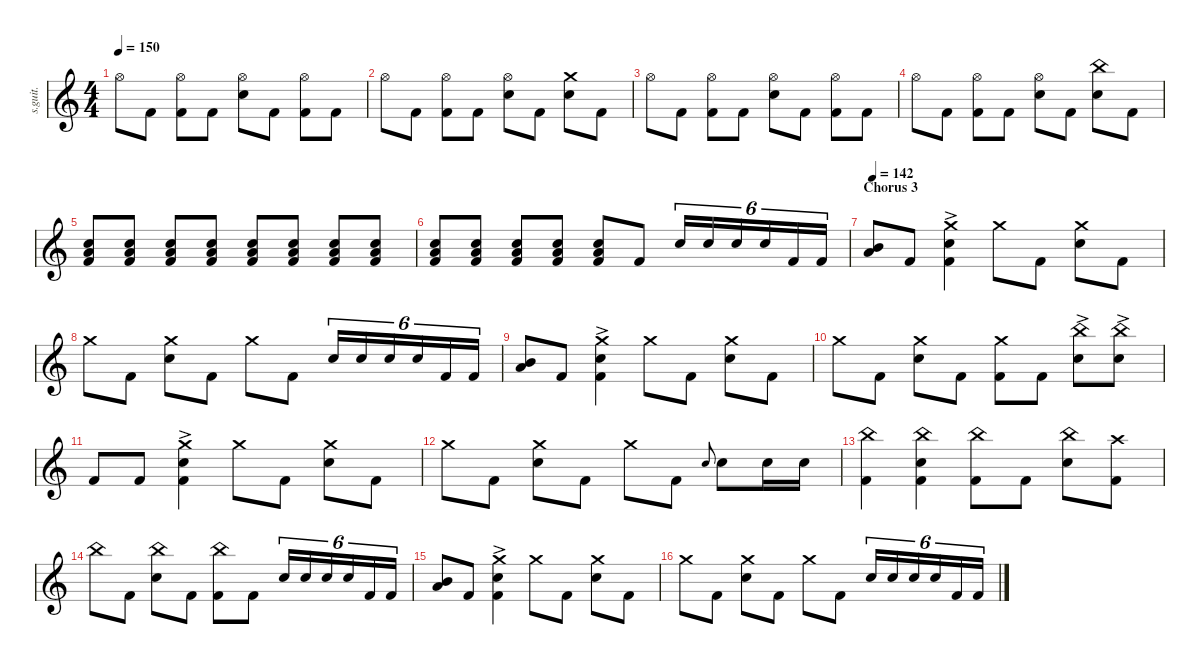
\defaultSystemsLayout 4
\hideDynamics
\bracketExtendMode nobrackets
\track ("Joey Jordison RIP" "s.guit.") {instrument percussion}
\staff {score}
\articulation defaults
\ts (4 4)
\tempo 150
\clef g2
\ks c "Hi-Hat (open)".8{dy fff} "Kick (hit) 2".8
("Hi-Hat (open)" "Kick (hit) 2").8 "Kick (hit) 2".8 ("Hi-Hat (open)" "Snare (hit) 2").8 "Kick (hit) 2".8 ("Hi-Hat (open)" "Kick (hit) 2").8 "Kick (hit) 2".8 |
"Hi-Hat (open)".8 "Kick (hit) 2".8 ("Hi-Hat (open)" "Kick (hit) 2").8 "Kick (hit) 2".8 ("Hi-Hat (open)" "Snare (hit) 2").8 "Kick (hit) 2".8 ("Crash medium (hit)" "Snare (hit) 2").8 "Kick (hit) 2".8 |
"Hi-Hat (open)".8 "Kick (hit) 2".8 ("Hi-Hat (open)" "Kick (hit) 2").8 "Kick (hit) 2".8 ("Hi-Hat (open)" "Snare (hit) 2").8 "Kick (hit) 2".8 ("Hi-Hat (open)" "Kick (hit) 2").8 "Kick (hit) 2".8 |
"Hi-Hat (open)".8 "Kick (hit) 2".8 ("Hi-Hat (open)" "Kick (hit) 2").8 "Kick (hit) 2".8 ("Hi-Hat (open)" "Snare (hit) 2").8 "Kick (hit) 2".8 ("China (hit)" "Snare (hit) 2").8 "Kick (hit) 2".8 |
("Kick (hit) 2" "Low Floor Tom (hit)" "Snare (hit) 2").8 ("Kick (hit) 2" "Low Floor Tom (hit)" "Snare (hit) 2").8 ("Kick (hit) 2" "Low Floor Tom (hit)" "Snare (hit) 2").8 ("Kick (hit) 2" "Low Floor Tom (hit)" "Snare (hit) 2").8 ("Kick (hit) 2" "Low Floor Tom (hit)" "Snare (hit) 2").8 ("Kick (hit) 2" "Low Floor Tom (hit)" "Snare (hit) 2").8 ("Kick (hit) 2" "Low Floor Tom (hit)" "Snare (hit) 2").8 ("Kick (hit) 2" "Low Floor Tom (hit)" "Snare (hit) 2").8 |
("Kick (hit) 2" "Low Floor Tom (hit)" "Snare (hit) 2").8 ("Kick (hit) 2" "Low Floor Tom (hit)" "Snare (hit) 2").8 ("Kick (hit) 2" "Low Floor Tom (hit)" "Snare (hit) 2").8 ("Kick (hit) 2" "Low Floor Tom (hit)" "Snare (hit) 2").8 ("Kick (hit) 2" "Low Floor Tom (hit)" "Snare (hit) 2").8 "Kick (hit) 2".8 "Snare (hit) 2".16{tu (6 4)} "Snare (hit) 2".16{tu (6 4)} "Snare (hit) 2".16{tu (6 4)} "Snare (hit) 2".16{tu (6 4)} "Kick (hit) 2".16{tu (6 4)} "Kick (hit) 2".16{tu (6 4)} |
\section ("" "Chorus 3")
\tempo 142
("Mid Tom (hit)" "Low Floor Tom (hit)").8 "Kick (hit) 2".8 ("Crash medium (hit)"{ac} "Kick (hit) 2"{ac} "Snare (hit) 2"{ac}).4 "Crash medium (hit)".8 "Kick (hit) 2".8 ("Crash medium (hit)" "Snare (hit) 2").8 "Kick (hit) 2".8 |
"Crash medium (hit)".8 "Kick (hit) 2".8 ("Crash medium (hit)" "Snare (hit) 2").8 "Kick (hit) 2".8 "Crash medium (hit)".8 "Kick (hit) 2".8 "Snare (hit) 2".16{tu (6 4)} "Snare (hit) 2".16{tu (6 4)} "Snare (hit) 2".16{tu (6 4)} "Snare (hit) 2".16{tu (6 4)} "Kick (hit) 2".16{tu (6 4)} "Kick (hit) 2".16{tu (6 4)} |
("Mid Tom (hit)" "Low Floor Tom (hit)").8 "Kick (hit) 2".8 ("Crash medium (hit)"{ac} "Kick (hit) 2"{ac} "Snare (hit) 2"{ac}).4 "Crash medium (hit)".8 "Kick (hit) 2".8 ("Crash medium (hit)" "Snare (hit) 2").8 "Kick (hit) 2".8 |
"Crash medium (hit)".8 "Kick (hit) 2".8 ("Crash medium (hit)" "Snare (hit) 2").8 "Kick (hit) 2".8 ("Crash medium (hit)" "Kick (hit) 2").8 "Kick (hit) 2".8 ("China (hit)"{ac} "Snare (hit) 2"{ac}).8 ("China (hit)"{ac} "Snare (hit) 2"{ac}).8 |
"Kick (hit) 2".8 "Kick (hit) 2".8 ("Crash medium (hit)"{ac} "Kick (hit) 2"{ac} "Snare (hit) 2"{ac}).4 "Crash medium (hit)".8 "Kick (hit) 2".8 ("Crash medium (hit)" "Snare (hit) 2").8 "Kick (hit) 2".8 |
"Crash medium (hit)".8 "Kick (hit) 2".8 ("Crash medium (hit)" "Snare (hit) 2").8 "Kick (hit) 2".8 "Crash medium (hit)".8 "Kick (hit) 2".8 "Snare (hit) 2".8{gr onbeat} "Snare (hit) 2".8 "Snare (hit) 2".16 "Snare (hit) 2".16 |
("China (hit)" "Kick (hit) 2").4 ("China (hit)" "Kick (hit) 2" "Snare (hit) 2").4 ("China (hit)" "Kick (hit) 2").8 "Kick (hit) 2".8 ("China (hit)" "Snare (hit) 2").8 ("Crash high (hit)" "Kick (hit) 2").8 |
"China (hit)".8 "Kick (hit) 2".8 ("China (hit)" "Snare (hit) 2").8 "Kick (hit) 2".8 ("China (hit)" "Kick (hit) 2").8 "Kick (hit) 2".8 "Snare (hit) 2".16{tu (6 4)} "Snare (hit) 2".16{tu (6 4)} "Snare (hit) 2".16{tu (6 4)} "Snare (hit) 2".16{tu (6 4)} "Kick (hit) 2".16{tu (6 4)} "Kick (hit) 2".16{tu (6 4)} |
("Mid Tom (hit)" "Low Floor Tom (hit)").8 "Kick (hit) 2".8 ("Crash medium (hit)"{ac} "Kick (hit) 2"{ac} "Snare (hit) 2"{ac}).4 "Crash medium (hit)".8 "Kick (hit) 2".8 ("Crash medium (hit)" "Snare (hit) 2").8 "Kick (hit) 2".8 |
"Crash medium (hit)".8 "Kick (hit) 2".8 ("Crash medium (hit)" "Snare (hit) 2").8 "Kick (hit) 2".8 "Crash medium (hit)".8 "Kick (hit) 2".8 "Snare (hit) 2".16{tu (6 4)} "Snare (hit) 2".16{tu (6 4)} "Snare (hit) 2".16{tu (6 4)} "Snare (hit) 2".16{tu (6 4)} "Kick (hit) 2".16{tu (6 4)} "Kick (hit) 2".16{tu (6 4)}
